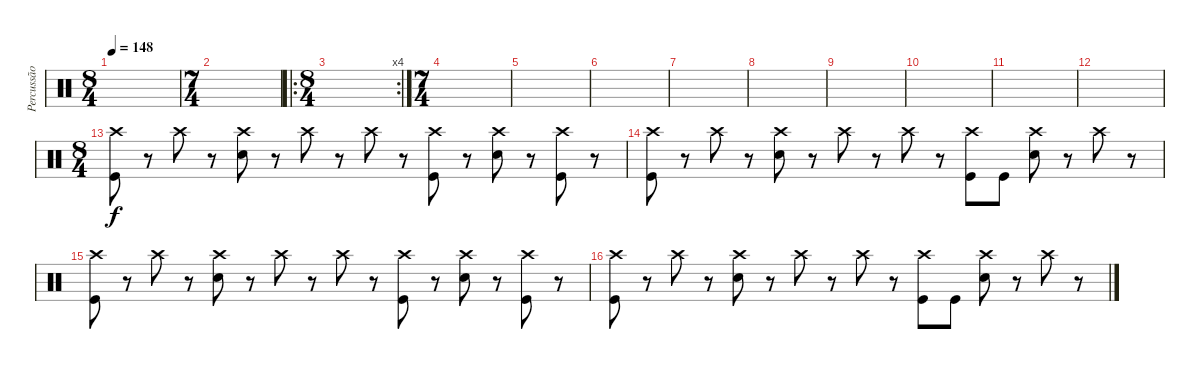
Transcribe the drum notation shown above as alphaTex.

\track ("Percussão" "Percussão") {instrument percussion}
\staff {score}
\articulation defaults
\ts (8 4)
\tempo 148
\clef neutral
\ks c
|
\ts (7 4)
|
\ro
\rc 4
\ts (8 4)
|
\ts (7 4)
|
|
|
|
|
|
|
|
|
\ts (8 4)
("Crash high (hit)" "Kick (hit)").8 r.8 "Crash high (hit)".8 r.8 ("Crash high (hit)" "Snare (hit) 2").8 r.8 "Crash high (hit)".8 r.8 "Crash high (hit)".8 r.8 ("Crash high (hit)" "Kick (hit)").8 r.8 ("Crash high (hit)" "Snare (hit) 2").8 r.8 ("Crash high (hit)" "Kick (hit)").8 r.8 |
("Crash high (hit)" "Kick (hit)").8 r.8 "Crash high (hit)".8 r.8 ("Crash high (hit)" "Snare (hit) 2").8 r.8 "Crash high (hit)".8 r.8 "Crash high (hit)".8 r.8 ("Crash high (hit)" "Kick (hit)").8 "Kick (hit)".8 ("Crash high (hit)" "Snare (hit) 2").8 r.8 "Crash high (hit)".8 r.8 |
("Crash high (hit)" "Kick (hit)").8 r.8 "Crash high (hit)".8 r.8 ("Crash high (hit)" "Snare (hit) 2").8 r.8 "Crash high (hit)".8 r.8 "Crash high (hit)".8 r.8 ("Crash high (hit)" "Kick (hit)").8 r.8 ("Crash high (hit)" "Snare (hit) 2").8 r.8 ("Crash high (hit)" "Kick (hit)").8 r.8 |
("Crash high (hit)" "Kick (hit)").8 r.8 "Crash high (hit)".8 r.8 ("Crash high (hit)" "Snare (hit) 2").8 r.8 "Crash high (hit)".8 r.8 "Crash high (hit)".8 r.8 ("Crash high (hit)" "Kick (hit)").8 "Kick (hit)".8 ("Crash high (hit)" "Snare (hit) 2").8 r.8 "Crash high (hit)".8 r.8
